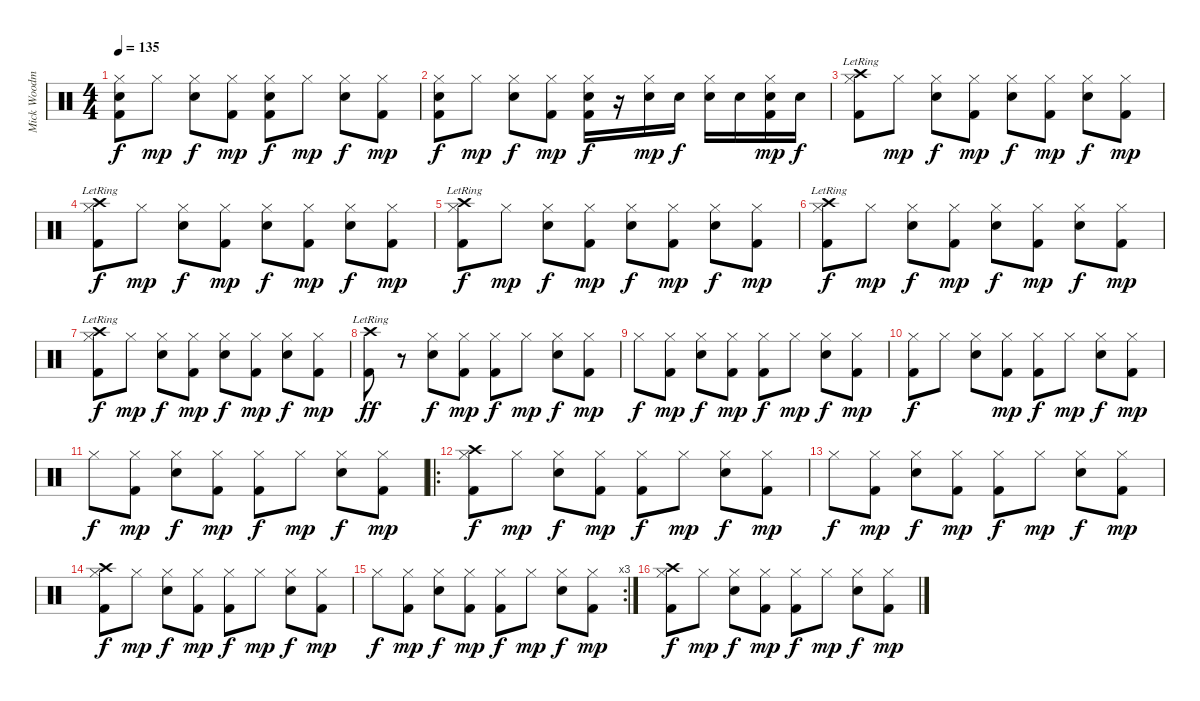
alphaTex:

\track ("Mick Woodmansey - Drums" "Mick Woodm") {instrument percussion}
\staff {score}
\articulation defaults
\ts (4 4)
\tempo 135
\clef neutral
\ks c
("Hi-Hat (closed)" "Electric Snare (hit)" "Kick (hit) 2").8{dy f} "Hi-Hat (closed)".8{dy mp} ("Hi-Hat (closed)" "Electric Snare (hit)").8{dy f} ("Hi-Hat (closed)" "Kick (hit) 2").8{dy mp} ("Hi-Hat (closed)" "Electric Snare (hit)" "Kick (hit) 2").8{dy f} "Hi-Hat (closed)".8{dy mp} ("Hi-Hat (closed)" "Electric Snare (hit)").8{dy f} ("Hi-Hat (closed)" "Kick (hit) 2").8{dy mp} |
("Hi-Hat (closed)" "Electric Snare (hit)" "Kick (hit) 2").8{dy f} "Hi-Hat (closed)".8{dy mp} ("Hi-Hat (closed)" "Electric Snare (hit)").8{dy f} ("Hi-Hat (closed)" "Kick (hit) 2").8{dy mp} ("Hi-Hat (closed)" "Electric Snare (hit)" "Kick (hit) 2").16{dy f} r.16 ("Hi-Hat (closed)" "Electric Snare (hit)").16{dy mp} "Electric Snare (hit)".16{dy f} ("Hi-Hat (closed)" "Electric Snare (hit)").16 "Electric Snare (hit)".16 ("Hi-Hat (closed)" "Electric Snare (hit)" "Kick (hit) 2").16{dy mp} "Electric Snare (hit)".16{dy f} |
("Crash high (hit)"{lr} "Hi-Hat (closed)" "Kick (hit) 2").8 "Hi-Hat (closed)".8{dy mp} ("Hi-Hat (closed)" "Electric Snare (hit)").8{dy f} ("Hi-Hat (closed)" "Kick (hit) 2").8{dy mp} ("Hi-Hat (closed)" "Electric Snare (hit)").8{dy f} ("Hi-Hat (closed)" "Kick (hit) 2").8{dy mp} ("Hi-Hat (closed)" "Electric Snare (hit)").8{dy f} ("Hi-Hat (closed)" "Kick (hit) 2").8{dy mp} |
("Crash high (hit)"{lr} "Hi-Hat (closed)" "Kick (hit) 2").8{dy f} "Hi-Hat (closed)".8{dy mp} ("Hi-Hat (closed)" "Electric Snare (hit)").8{dy f} ("Hi-Hat (closed)" "Kick (hit) 2").8{dy mp} ("Hi-Hat (closed)" "Electric Snare (hit)").8{dy f} ("Hi-Hat (closed)" "Kick (hit) 2").8{dy mp} ("Hi-Hat (closed)" "Electric Snare (hit)").8{dy f} ("Hi-Hat (closed)" "Kick (hit) 2").8{dy mp} |
("Crash high (hit)"{lr} "Hi-Hat (closed)" "Kick (hit) 2").8{dy f} "Hi-Hat (closed)".8{dy mp} ("Hi-Hat (closed)" "Electric Snare (hit)").8{dy f} ("Hi-Hat (closed)" "Kick (hit) 2").8{dy mp} ("Hi-Hat (closed)" "Electric Snare (hit)").8{dy f} ("Hi-Hat (closed)" "Kick (hit) 2").8{dy mp} ("Hi-Hat (closed)" "Electric Snare (hit)").8{dy f} ("Hi-Hat (closed)" "Kick (hit) 2").8{dy mp} |
("Crash high (hit)"{lr} "Hi-Hat (closed)" "Kick (hit) 2").8{dy f} "Hi-Hat (closed)".8{dy mp} ("Hi-Hat (closed)" "Electric Snare (hit)").8{dy f} ("Hi-Hat (closed)" "Kick (hit) 2").8{dy mp} ("Hi-Hat (closed)" "Electric Snare (hit)").8{dy f} ("Hi-Hat (closed)" "Kick (hit) 2").8{dy mp} ("Hi-Hat (closed)" "Electric Snare (hit)").8{dy f} ("Hi-Hat (closed)" "Kick (hit) 2").8{dy mp} |
("Crash high (hit)"{lr} "Hi-Hat (closed)" "Kick (hit) 2").8{dy f} "Hi-Hat (closed)".8{dy mp} ("Hi-Hat (closed)" "Electric Snare (hit)").8{dy f} ("Hi-Hat (closed)" "Kick (hit) 2").8{dy mp} ("Hi-Hat (closed)" "Electric Snare (hit)").8{dy f} ("Hi-Hat (closed)" "Kick (hit) 2").8{dy mp} ("Hi-Hat (closed)" "Electric Snare (hit)").8{dy f} ("Hi-Hat (closed)" "Kick (hit) 2").8{dy mp} |
("Crash high (hit)"{lr} "Kick (hit) 2").8{dy ff} r.8 ("Hi-Hat (closed)" "Electric Snare (hit)").8{dy f} ("Hi-Hat (closed)" "Kick (hit) 2").8{dy mp} ("Hi-Hat (closed)" "Kick (hit) 2").8{dy f} "Hi-Hat (closed)".8{dy mp} ("Hi-Hat (closed)" "Electric Snare (hit)").8{dy f} ("Hi-Hat (closed)" "Kick (hit) 2").8{dy mp} |
"Hi-Hat (closed)".8{dy f} ("Hi-Hat (closed)" "Kick (hit) 2").8{dy mp} ("Hi-Hat (closed)" "Electric Snare (hit)").8{dy f} ("Hi-Hat (closed)" "Kick (hit) 2").8{dy mp} ("Hi-Hat (closed)" "Kick (hit) 2").8{dy f} "Hi-Hat (closed)".8{dy mp} ("Hi-Hat (closed)" "Electric Snare (hit)").8{dy f} ("Hi-Hat (closed)" "Kick (hit) 2").8{dy mp} |
("Hi-Hat (closed)" "Kick (hit) 2").8{dy f} "Hi-Hat (closed)".8 ("Hi-Hat (closed)" "Electric Snare (hit)").8 ("Hi-Hat (closed)" "Kick (hit) 2").8{dy mp} ("Hi-Hat (closed)" "Kick (hit) 2").8{dy f} "Hi-Hat (closed)".8{dy mp} ("Hi-Hat (closed)" "Electric Snare (hit)").8{dy f} ("Hi-Hat (closed)" "Kick (hit) 2").8{dy mp} |
"Hi-Hat (closed)".8{dy f} ("Hi-Hat (closed)" "Kick (hit) 2").8{dy mp} ("Hi-Hat (closed)" "Electric Snare (hit)").8{dy f} ("Hi-Hat (closed)" "Kick (hit) 2").8{dy mp} ("Hi-Hat (closed)" "Kick (hit) 2").8{dy f} "Hi-Hat (closed)".8{dy mp} ("Hi-Hat (closed)" "Electric Snare (hit)").8{dy f} ("Hi-Hat (closed)" "Kick (hit) 2").8{dy mp} |
\ro
("Crash high (hit)" "Hi-Hat (closed)" "Kick (hit) 2").8{dy f} "Hi-Hat (closed)".8{dy mp} ("Hi-Hat (closed)" "Electric Snare (hit)").8{dy f} ("Hi-Hat (closed)" "Kick (hit) 2").8{dy mp} ("Hi-Hat (closed)" "Kick (hit) 2").8{dy f} "Hi-Hat (closed)".8{dy mp} ("Hi-Hat (closed)" "Electric Snare (hit)").8{dy f} ("Hi-Hat (closed)" "Kick (hit) 2").8{dy mp} |
"Hi-Hat (closed)".8{dy f} ("Hi-Hat (closed)" "Kick (hit) 2").8{dy mp} ("Hi-Hat (closed)" "Electric Snare (hit)").8{dy f} ("Hi-Hat (closed)" "Kick (hit) 2").8{dy mp} ("Hi-Hat (closed)" "Kick (hit) 2").8{dy f} "Hi-Hat (closed)".8{dy mp} ("Hi-Hat (closed)" "Electric Snare (hit)").8{dy f} ("Hi-Hat (closed)" "Kick (hit) 2").8{dy mp} |
("Crash high (hit)" "Hi-Hat (closed)" "Kick (hit) 2").8{dy f} "Hi-Hat (closed)".8{dy mp} ("Hi-Hat (closed)" "Electric Snare (hit)").8{dy f} ("Hi-Hat (closed)" "Kick (hit) 2").8{dy mp} ("Hi-Hat (closed)" "Kick (hit) 2").8{dy f} "Hi-Hat (closed)".8{dy mp} ("Hi-Hat (closed)" "Electric Snare (hit)").8{dy f} ("Hi-Hat (closed)" "Kick (hit) 2").8{dy mp} |
\rc 3 "Hi-Hat (closed)".8{dy f}
("Hi-Hat (closed)" "Kick (hit) 2").8{dy mp} ("Hi-Hat (closed)" "Electric Snare (hit)").8{dy f} ("Hi-Hat (closed)" "Kick (hit) 2").8{dy mp} ("Hi-Hat (closed)" "Kick (hit) 2").8{dy f} "Hi-Hat (closed)".8{dy mp} ("Hi-Hat (closed)" "Electric Snare (hit)").8{dy f} ("Hi-Hat (closed)" "Kick (hit) 2").8{dy mp} |
("Crash high (hit)" "Hi-Hat (closed)" "Kick (hit) 2").8{dy f} "Hi-Hat (closed)".8{dy mp} ("Hi-Hat (closed)" "Electric Snare (hit)").8{dy f} ("Hi-Hat (closed)" "Kick (hit) 2").8{dy mp} ("Hi-Hat (closed)" "Kick (hit) 2").8{dy f} "Hi-Hat (closed)".8{dy mp} ("Hi-Hat (closed)" "Electric Snare (hit)").8{dy f} ("Hi-Hat (closed)" "Kick (hit) 2").8{dy mp}
